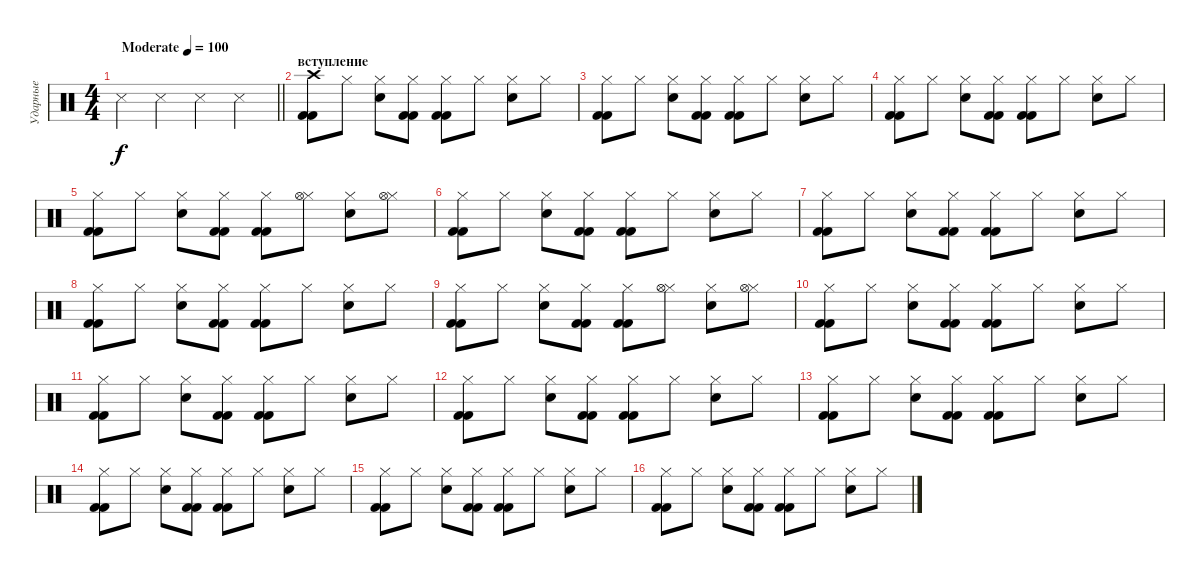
\track ("Ударные" "Ударные") {instrument percussion}
\staff {score}
\articulation defaults
\ts (4 4)
\tempo (100 "Moderate")
\clef neutral
\barLineRight lightlight
\ks c "Snare (side stick) 3".4{dy f} "Snare (side stick) 3".4 "Snare (side stick) 3".4 "Snare (side stick) 3".4
|
\section ("" "вступление")
("Crash high (hit)" "Kick (hit) 2" "Kick (hit) 2").8 "Hi-Hat (closed)".8 ("Hi-Hat (closed)" "Hand Clap (hit)").8 ("Hi-Hat (closed)" "Kick (hit) 2" "Kick (hit) 2").8 ("Hi-Hat (closed)" "Kick (hit) 2" "Kick (hit) 2").8 "Hi-Hat (closed)".8 ("Hi-Hat (closed)" "Hand Clap (hit)").8 "Hi-Hat (closed)".8 |
("Hi-Hat (closed)" "Kick (hit) 2" "Kick (hit) 2").8 "Hi-Hat (closed)".8 ("Hi-Hat (closed)" "Hand Clap (hit)").8 ("Hi-Hat (closed)" "Kick (hit) 2" "Kick (hit) 2").8 ("Hi-Hat (closed)" "Kick (hit) 2" "Kick (hit) 2").8 "Hi-Hat (closed)".8 ("Hi-Hat (closed)" "Hand Clap (hit)").8 "Hi-Hat (closed)".8 |
("Hi-Hat (closed)" "Kick (hit) 2" "Kick (hit) 2").8 "Hi-Hat (closed)".8 ("Hi-Hat (closed)" "Hand Clap (hit)").8 ("Hi-Hat (closed)" "Kick (hit) 2" "Kick (hit) 2").8 ("Hi-Hat (closed)" "Kick (hit) 2" "Kick (hit) 2").8 "Hi-Hat (closed)".8 ("Hi-Hat (closed)" "Hand Clap (hit)").8 "Hi-Hat (closed)".8 |
("Hi-Hat (closed)" "Kick (hit) 2" "Kick (hit) 2").8 "Hi-Hat (closed)".8 ("Hi-Hat (closed)" "Hand Clap (hit)").8 ("Hi-Hat (closed)" "Kick (hit) 2" "Kick (hit) 2").8 ("Hi-Hat (closed)" "Kick (hit) 2" "Kick (hit) 2").8 ("Hi-Hat (closed)" "Hi-Hat (open)").8 ("Hi-Hat (closed)" "Hand Clap (hit)").8 ("Hi-Hat (closed)" "Hi-Hat (open)").8 |
("Hi-Hat (closed)" "Kick (hit) 2" "Kick (hit) 2").8 "Hi-Hat (closed)".8 ("Hi-Hat (closed)" "Hand Clap (hit)").8 ("Hi-Hat (closed)" "Kick (hit) 2" "Kick (hit) 2").8 ("Hi-Hat (closed)" "Kick (hit) 2" "Kick (hit) 2").8 "Hi-Hat (closed)".8 ("Hi-Hat (closed)" "Hand Clap (hit)").8 "Hi-Hat (closed)".8 |
("Hi-Hat (closed)" "Kick (hit) 2" "Kick (hit) 2").8 "Hi-Hat (closed)".8 ("Hi-Hat (closed)" "Hand Clap (hit)").8 ("Hi-Hat (closed)" "Kick (hit) 2" "Kick (hit) 2").8 ("Hi-Hat (closed)" "Kick (hit) 2" "Kick (hit) 2").8 "Hi-Hat (closed)".8 ("Hi-Hat (closed)" "Hand Clap (hit)").8 "Hi-Hat (closed)".8 |
("Hi-Hat (closed)" "Kick (hit) 2" "Kick (hit) 2").8 "Hi-Hat (closed)".8 ("Hi-Hat (closed)" "Hand Clap (hit)").8 ("Hi-Hat (closed)" "Kick (hit) 2" "Kick (hit) 2").8 ("Hi-Hat (closed)" "Kick (hit) 2" "Kick (hit) 2").8 "Hi-Hat (closed)".8 ("Hi-Hat (closed)" "Hand Clap (hit)").8 "Hi-Hat (closed)".8 |
("Hi-Hat (closed)" "Kick (hit) 2" "Kick (hit) 2").8 "Hi-Hat (closed)".8 ("Hi-Hat (closed)" "Hand Clap (hit)").8 ("Hi-Hat (closed)" "Kick (hit) 2" "Kick (hit) 2").8 ("Hi-Hat (closed)" "Kick (hit) 2" "Kick (hit) 2").8 ("Hi-Hat (closed)" "Hi-Hat (open)").8 ("Hi-Hat (closed)" "Hand Clap (hit)").8 ("Hi-Hat (closed)" "Hi-Hat (open)").8 |
("Hi-Hat (closed)" "Kick (hit) 2" "Kick (hit) 2").8 "Hi-Hat (closed)".8 ("Hi-Hat (closed)" "Hand Clap (hit)").8 ("Hi-Hat (closed)" "Kick (hit) 2" "Kick (hit) 2").8 ("Hi-Hat (closed)" "Kick (hit) 2" "Kick (hit) 2").8 "Hi-Hat (closed)".8 ("Hi-Hat (closed)" "Hand Clap (hit)").8 "Hi-Hat (closed)".8 |
("Hi-Hat (closed)" "Kick (hit) 2" "Kick (hit) 2").8 "Hi-Hat (closed)".8 ("Hi-Hat (closed)" "Hand Clap (hit)").8 ("Hi-Hat (closed)" "Kick (hit) 2" "Kick (hit) 2").8 ("Hi-Hat (closed)" "Kick (hit) 2" "Kick (hit) 2").8 "Hi-Hat (closed)".8 ("Hi-Hat (closed)" "Hand Clap (hit)").8 "Hi-Hat (closed)".8 |
("Hi-Hat (closed)" "Kick (hit) 2" "Kick (hit) 2").8 "Hi-Hat (closed)".8 ("Hi-Hat (closed)" "Hand Clap (hit)").8 ("Hi-Hat (closed)" "Kick (hit) 2" "Kick (hit) 2").8 ("Hi-Hat (closed)" "Kick (hit) 2" "Kick (hit) 2").8 "Hi-Hat (closed)".8 ("Hi-Hat (closed)" "Hand Clap (hit)").8 "Hi-Hat (closed)".8 |
("Hi-Hat (closed)" "Kick (hit) 2" "Kick (hit) 2").8 "Hi-Hat (closed)".8 ("Hi-Hat (closed)" "Hand Clap (hit)").8 ("Hi-Hat (closed)" "Kick (hit) 2" "Kick (hit) 2").8 ("Hi-Hat (closed)" "Kick (hit) 2" "Kick (hit) 2").8 "Hi-Hat (closed)".8 ("Hi-Hat (closed)" "Hand Clap (hit)").8 "Hi-Hat (closed)".8 |
("Hi-Hat (closed)" "Kick (hit) 2" "Kick (hit) 2").8 "Hi-Hat (closed)".8 ("Hi-Hat (closed)" "Hand Clap (hit)").8 ("Hi-Hat (closed)" "Kick (hit) 2" "Kick (hit) 2").8 ("Hi-Hat (closed)" "Kick (hit) 2" "Kick (hit) 2").8 "Hi-Hat (closed)".8 ("Hi-Hat (closed)" "Hand Clap (hit)").8 "Hi-Hat (closed)".8 |
("Hi-Hat (closed)" "Kick (hit) 2" "Kick (hit) 2").8 "Hi-Hat (closed)".8 ("Hi-Hat (closed)" "Hand Clap (hit)").8 ("Hi-Hat (closed)" "Kick (hit) 2" "Kick (hit) 2").8 ("Hi-Hat (closed)" "Kick (hit) 2" "Kick (hit) 2").8 "Hi-Hat (closed)".8 ("Hi-Hat (closed)" "Hand Clap (hit)").8 "Hi-Hat (closed)".8 |
("Hi-Hat (closed)" "Kick (hit) 2" "Kick (hit) 2").8 "Hi-Hat (closed)".8 ("Hi-Hat (closed)" "Hand Clap (hit)").8 ("Hi-Hat (closed)" "Kick (hit) 2" "Kick (hit) 2").8 ("Hi-Hat (closed)" "Kick (hit) 2" "Kick (hit) 2").8 "Hi-Hat (closed)".8 ("Hi-Hat (closed)" "Hand Clap (hit)").8 "Hi-Hat (closed)".8
